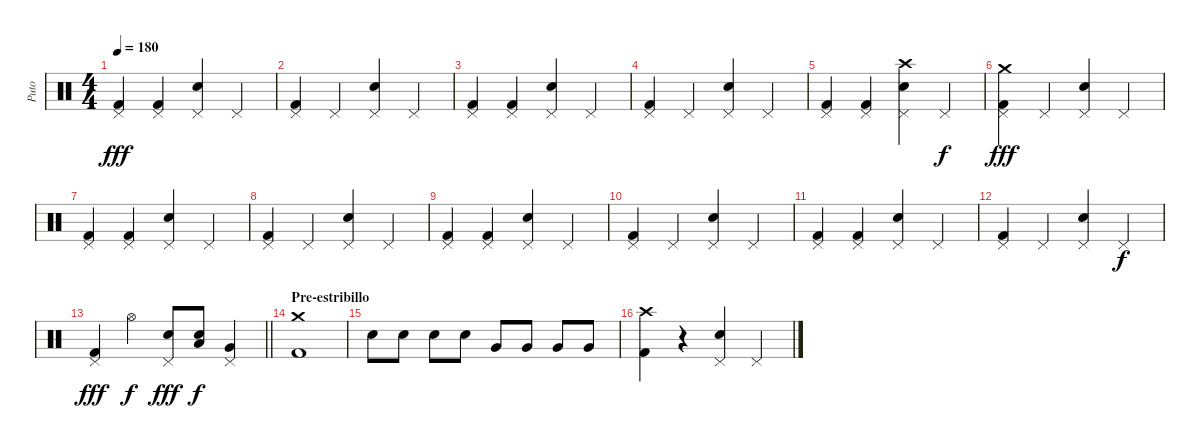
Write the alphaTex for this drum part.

\track ("Puto" "Puto") {instrument percussion}
\staff {score}
\articulation defaults
\ts (4 4)
\tempo 180
\clef neutral
\ks c
("Kick (hit) 2" "Pedal Hi-Hat (hit)").4{dy fff} ("Kick (hit) 2" "Pedal Hi-Hat (hit)").4 ("Snare (hit) 2" "Pedal Hi-Hat (hit)").4 "Pedal Hi-Hat (hit)".4 |
("Kick (hit) 2" "Pedal Hi-Hat (hit)").4 "Pedal Hi-Hat (hit)".4 ("Snare (hit) 2" "Pedal Hi-Hat (hit)").4 "Pedal Hi-Hat (hit)".4 |
("Kick (hit) 2" "Pedal Hi-Hat (hit)").4 ("Kick (hit) 2" "Pedal Hi-Hat (hit)").4 ("Snare (hit) 2" "Pedal Hi-Hat (hit)").4 "Pedal Hi-Hat (hit)".4 |
("Kick (hit) 2" "Pedal Hi-Hat (hit)").4 "Pedal Hi-Hat (hit)".4 ("Snare (hit) 2" "Pedal Hi-Hat (hit)").4 "Pedal Hi-Hat (hit)".4 |
("Kick (hit) 2" "Pedal Hi-Hat (hit)").4 ("Kick (hit) 2" "Pedal Hi-Hat (hit)").4 ("Crash high (hit)" "Snare (hit) 2" "Pedal Hi-Hat (hit)").4 "Pedal Hi-Hat (hit)".4{dy f} |
("Kick (hit) 2" "Crash medium (hit)" "Pedal Hi-Hat (hit)").4{dy fff} "Pedal Hi-Hat (hit)".4 ("Snare (hit) 2" "Pedal Hi-Hat (hit)").4 "Pedal Hi-Hat (hit)".4 |
("Kick (hit) 2" "Pedal Hi-Hat (hit)").4 ("Kick (hit) 2" "Pedal Hi-Hat (hit)").4 ("Snare (hit) 2" "Pedal Hi-Hat (hit)").4 "Pedal Hi-Hat (hit)".4 |
("Kick (hit) 2" "Pedal Hi-Hat (hit)").4 "Pedal Hi-Hat (hit)".4 ("Snare (hit) 2" "Pedal Hi-Hat (hit)").4 "Pedal Hi-Hat (hit)".4 |
("Kick (hit) 2" "Pedal Hi-Hat (hit)").4 ("Kick (hit) 2" "Pedal Hi-Hat (hit)").4 ("Snare (hit) 2" "Pedal Hi-Hat (hit)").4 "Pedal Hi-Hat (hit)".4 |
("Kick (hit) 2" "Pedal Hi-Hat (hit)").4 "Pedal Hi-Hat (hit)".4 ("Snare (hit) 2" "Pedal Hi-Hat (hit)").4 "Pedal Hi-Hat (hit)".4 |
("Kick (hit) 2" "Pedal Hi-Hat (hit)").4 ("Kick (hit) 2" "Pedal Hi-Hat (hit)").4 ("Snare (hit) 2" "Pedal Hi-Hat (hit)").4 "Pedal Hi-Hat (hit)".4 |
("Kick (hit) 2" "Pedal Hi-Hat (hit)").4 "Pedal Hi-Hat (hit)".4 ("Snare (hit) 2" "Pedal Hi-Hat (hit)").4 "Pedal Hi-Hat (hit)".4{dy f} |
\barLineRight lightlight
("Kick (hit) 2" "Pedal Hi-Hat (hit)").4{dy fff} "Hi-Hat (open)".4{dy f} ("Snare (hit) 2" "Pedal Hi-Hat (hit)").8{dy fff} ("Low Tom (hit)" "Snare (hit) 2").8{dy f} ("Very Low Tom (hit)" "Pedal Hi-Hat (hit)").4 |
\section ("" "Pre-estribillo")
("Kick (hit) 2" "Crash medium (hit)").1 |
"Snare (hit) 2".8 "Snare (hit) 2".8 "Snare (hit) 2".8 "Snare (hit) 2".8 "Very Low Tom (hit)".8 "Very Low Tom (hit)".8 "Very Low Tom (hit)".8 "Very Low Tom (hit)".8 |
("Kick (hit) 2" "Crash high (hit)").4 r.4 ("Snare (hit) 2" "Pedal Hi-Hat (hit)").4 "Pedal Hi-Hat (hit)".4
